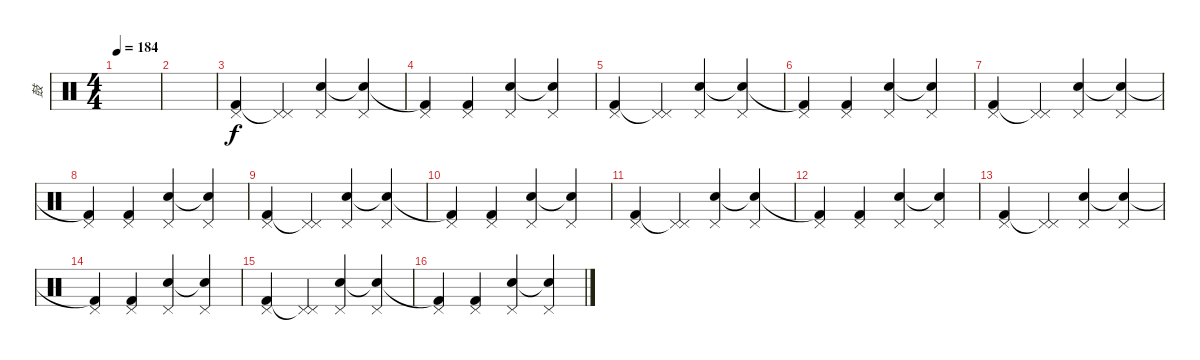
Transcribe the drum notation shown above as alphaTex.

\track ("鼓" "鼓") {instrument percussion}
\staff {score}
\articulation defaults
\ts (4 4)
\tempo 184
\clef neutral
\ks c
|
|
("Pedal Hi-Hat (hit)" "Kick (hit) 2").4 ("Pedal Hi-Hat (hit)" "Pedal Hi-Hat (hit)"{t}).4 ("Pedal Hi-Hat (hit)" "Electric Snare (hit)").4 ("Pedal Hi-Hat (hit)" "Snare (hit)"{t}).4 |
("Pedal Hi-Hat (hit)" "Kick (hit) 2"{t}).4 ("Pedal Hi-Hat (hit)" "Kick (hit) 2").4 ("Pedal Hi-Hat (hit)" "Electric Snare (hit)").4 ("Pedal Hi-Hat (hit)" "Snare (hit)"{t}).4 |
("Pedal Hi-Hat (hit)" "Kick (hit) 2").4 ("Pedal Hi-Hat (hit)" "Pedal Hi-Hat (hit)"{t}).4 ("Pedal Hi-Hat (hit)" "Electric Snare (hit)").4 ("Pedal Hi-Hat (hit)" "Snare (hit)"{t}).4 |
("Pedal Hi-Hat (hit)" "Kick (hit) 2"{t}).4 ("Pedal Hi-Hat (hit)" "Kick (hit) 2").4 ("Pedal Hi-Hat (hit)" "Electric Snare (hit)").4 ("Pedal Hi-Hat (hit)" "Snare (hit)"{t}).4 |
("Pedal Hi-Hat (hit)" "Kick (hit) 2").4 ("Pedal Hi-Hat (hit)" "Pedal Hi-Hat (hit)"{t}).4 ("Pedal Hi-Hat (hit)" "Electric Snare (hit)").4 ("Pedal Hi-Hat (hit)" "Snare (hit)"{t}).4 |
("Pedal Hi-Hat (hit)" "Kick (hit) 2"{t}).4 ("Pedal Hi-Hat (hit)" "Kick (hit) 2").4 ("Pedal Hi-Hat (hit)" "Electric Snare (hit)").4 ("Pedal Hi-Hat (hit)" "Snare (hit)"{t}).4 |
("Pedal Hi-Hat (hit)" "Kick (hit) 2").4 ("Pedal Hi-Hat (hit)" "Pedal Hi-Hat (hit)"{t}).4 ("Pedal Hi-Hat (hit)" "Electric Snare (hit)").4 ("Pedal Hi-Hat (hit)" "Snare (hit)"{t}).4 |
("Pedal Hi-Hat (hit)" "Kick (hit) 2"{t}).4 ("Pedal Hi-Hat (hit)" "Kick (hit) 2").4 ("Pedal Hi-Hat (hit)" "Electric Snare (hit)").4 ("Pedal Hi-Hat (hit)" "Snare (hit)"{t}).4 |
("Pedal Hi-Hat (hit)" "Kick (hit) 2").4 ("Pedal Hi-Hat (hit)" "Pedal Hi-Hat (hit)"{t}).4 ("Pedal Hi-Hat (hit)" "Electric Snare (hit)").4 ("Pedal Hi-Hat (hit)" "Snare (hit)"{t}).4 |
("Pedal Hi-Hat (hit)" "Kick (hit) 2"{t}).4 ("Pedal Hi-Hat (hit)" "Kick (hit) 2").4 ("Pedal Hi-Hat (hit)" "Electric Snare (hit)").4 ("Pedal Hi-Hat (hit)" "Snare (hit)"{t}).4 |
("Pedal Hi-Hat (hit)" "Kick (hit) 2").4 ("Pedal Hi-Hat (hit)" "Pedal Hi-Hat (hit)"{t}).4 ("Pedal Hi-Hat (hit)" "Electric Snare (hit)").4 ("Pedal Hi-Hat (hit)" "Snare (hit)"{t}).4 |
("Pedal Hi-Hat (hit)" "Kick (hit) 2"{t}).4 ("Pedal Hi-Hat (hit)" "Kick (hit) 2").4 ("Pedal Hi-Hat (hit)" "Electric Snare (hit)").4 ("Pedal Hi-Hat (hit)" "Snare (hit)"{t}).4 |
("Pedal Hi-Hat (hit)" "Kick (hit) 2").4 ("Pedal Hi-Hat (hit)" "Pedal Hi-Hat (hit)"{t}).4 ("Pedal Hi-Hat (hit)" "Electric Snare (hit)").4 ("Pedal Hi-Hat (hit)" "Snare (hit)"{t}).4 |
("Pedal Hi-Hat (hit)" "Kick (hit) 2"{t}).4 ("Pedal Hi-Hat (hit)" "Kick (hit) 2").4 ("Pedal Hi-Hat (hit)" "Electric Snare (hit)").4 ("Pedal Hi-Hat (hit)" "Snare (hit)"{t}).4
